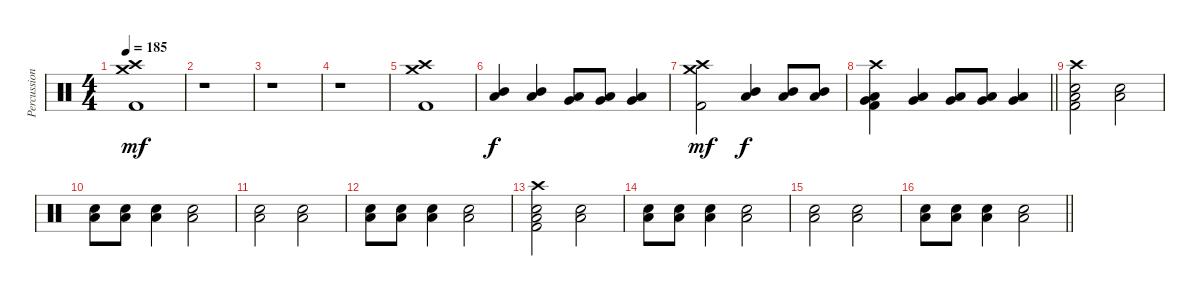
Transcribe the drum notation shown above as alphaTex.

\track ("Percussion" "Percussion") {instrument percussion}
\staff {score}
\articulation defaults
\ts (4 4)
\section ("" "")
\tempo 185
\clef neutral
\ks c
("Crash high (hit)" "Crash medium (hit)" "Kick (hit) 2").1{dy mf} |
r.1 |
r.1 |
r.1 |
("Crash high (hit)" "Crash medium (hit)" "Kick (hit) 2").1 |
("Low Tom (hit)" "Mid Tom (hit)").4{dy f} ("Low Tom (hit)" "Mid Tom (hit)").4 ("Very Low Tom (hit)" "Low Tom (hit)").8 ("Very Low Tom (hit)" "Low Tom (hit)").8 ("Very Low Tom (hit)" "Low Tom (hit)").4 |
("Crash high (hit)" "Crash medium (hit)" "Kick (hit) 2").2{dy mf} ("Low Tom (hit)" "Mid Tom (hit)").4{dy f} ("Low Tom (hit)" "Mid Tom (hit)").8 ("Low Tom (hit)" "Mid Tom (hit)").8 |
\barLineRight lightlight
("Crash high (hit)" "Very Low Tom (hit)" "Low Tom (hit)" "Kick (hit) 2").4 ("Very Low Tom (hit)" "Low Tom (hit)").4 ("Low Floor Tom (hit)" "Very Low Tom (hit)").8 ("Low Floor Tom (hit)" "Very Low Tom (hit)").8 ("Low Floor Tom (hit)" "Very Low Tom (hit)").4 |
\section ("" "")
("Crash high (hit)" "Electric Snare (hit)" "Low Floor Tom (hit)" "Kick (hit) 2").2 ("Electric Snare (hit)" "Low Floor Tom (hit)").2 |
("Electric Snare (hit)" "Low Floor Tom (hit)").8 ("Electric Snare (hit)" "Low Floor Tom (hit)").8 ("Electric Snare (hit)" "Low Floor Tom (hit)").4 ("Electric Snare (hit)" "Low Floor Tom (hit)").2 |
("Electric Snare (hit)" "Low Floor Tom (hit)").2 ("Electric Snare (hit)" "Low Floor Tom (hit)").2 |
("Electric Snare (hit)" "Low Floor Tom (hit)").8 ("Electric Snare (hit)" "Low Floor Tom (hit)").8 ("Electric Snare (hit)" "Low Floor Tom (hit)").4 ("Electric Snare (hit)" "Low Floor Tom (hit)").2 |
("Crash high (hit)" "Electric Snare (hit)" "Low Floor Tom (hit)" "Kick (hit) 2").2 ("Electric Snare (hit)" "Low Floor Tom (hit)").2 |
("Electric Snare (hit)" "Low Floor Tom (hit)").8 ("Electric Snare (hit)" "Low Floor Tom (hit)").8 ("Electric Snare (hit)" "Low Floor Tom (hit)").4 ("Electric Snare (hit)" "Low Floor Tom (hit)").2 |
("Electric Snare (hit)" "Low Floor Tom (hit)").2 ("Electric Snare (hit)" "Low Floor Tom (hit)").2 |
\barLineRight lightlight
("Electric Snare (hit)" "Low Floor Tom (hit)").8 ("Electric Snare (hit)" "Low Floor Tom (hit)").8 ("Electric Snare (hit)" "Low Floor Tom (hit)").4 ("Electric Snare (hit)" "Low Floor Tom (hit)").2
